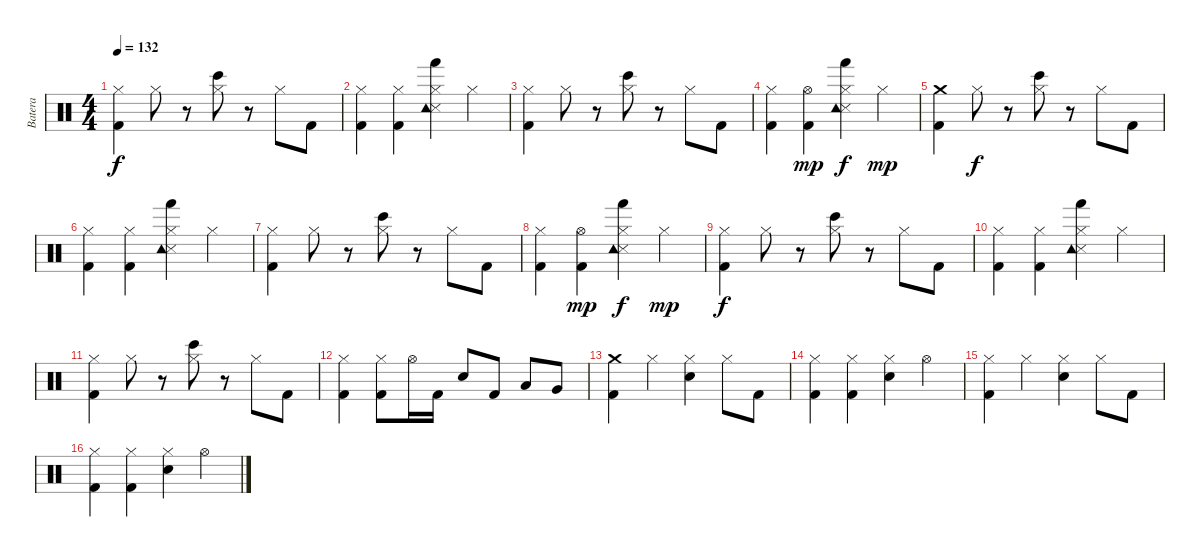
\track ("Batera" "Batera") {instrument percussion}
\staff {score}
\articulation defaults
\ts (4 4)
\tempo 132
\clef neutral
\ks c
("Hi-Hat (closed)" "Kick (hit) 2").4{dy f} "Hi-Hat (closed)".8 r.8 ("Hi-Hat (closed)" "Bongo High (hit)").8 r.8 "Hi-Hat (closed)".8 "Kick (hit) 2".8 |
("Hi-Hat (closed)" "Kick (hit) 2").4 ("Hi-Hat (closed)" "Kick (hit) 2").4 ("Hi-Hat (closed)" "Snare (side stick) 3" "Hand (hit)" "Tambourine (hit)").4 "Hi-Hat (closed)".4 |
("Hi-Hat (closed)" "Kick (hit) 2").4 "Hi-Hat (closed)".8 r.8 ("Hi-Hat (closed)" "Bongo High (hit)").8 r.8 "Hi-Hat (closed)".8 "Kick (hit) 2".8 |
("Hi-Hat (closed)" "Kick (hit) 2").4 ("Hi-Hat (open)" "Kick (hit) 2").4{dy mp} ("Hi-Hat (closed)" "Hand (hit)" "Snare (side stick) 3" "Tambourine (hit)").4{dy f} "Hi-Hat (closed)".4{dy mp} |
("Crash medium (hit)" "Kick (hit) 2").4 "Hi-Hat (closed)".8{dy f} r.8 ("Hi-Hat (closed)" "Bongo High (hit)").8 r.8 "Hi-Hat (closed)".8 "Kick (hit) 2".8 |
("Hi-Hat (closed)" "Kick (hit) 2").4 ("Hi-Hat (closed)" "Kick (hit) 2").4 ("Hi-Hat (closed)" "Snare (side stick) 3" "Hand (hit)" "Tambourine (hit)").4 "Hi-Hat (closed)".4 |
("Hi-Hat (closed)" "Kick (hit) 2").4 "Hi-Hat (closed)".8 r.8 ("Hi-Hat (closed)" "Bongo High (hit)").8 r.8 "Hi-Hat (closed)".8 "Kick (hit) 2".8 |
("Hi-Hat (closed)" "Kick (hit) 2").4 ("Hi-Hat (open)" "Kick (hit) 2").4{dy mp} ("Hi-Hat (closed)" "Hand (hit)" "Snare (side stick) 3" "Tambourine (hit)").4{dy f} "Hi-Hat (closed)".4{dy mp} |
("Hi-Hat (closed)" "Kick (hit) 2").4{dy f} "Hi-Hat (closed)".8 r.8 ("Hi-Hat (closed)" "Bongo High (hit)").8 r.8 "Hi-Hat (closed)".8 "Kick (hit) 2".8 |
("Hi-Hat (closed)" "Kick (hit) 2").4 ("Hi-Hat (closed)" "Kick (hit) 2").4 ("Hi-Hat (closed)" "Snare (side stick) 3" "Hand (hit)" "Tambourine (hit)").4 "Hi-Hat (closed)".4 |
("Hi-Hat (closed)" "Kick (hit) 2").4 "Hi-Hat (closed)".8 r.8 ("Hi-Hat (closed)" "Bongo High (hit)").8 r.8 "Hi-Hat (closed)".8 "Kick (hit) 2".8 |
("Hi-Hat (closed)" "Kick (hit) 2").4 ("Hi-Hat (closed)" "Kick (hit) 2").8 "Hi-Hat (open)".16 "Kick (hit) 2".16 "Electric Snare (hit)".8 "Kick (hit) 2".8 "Low Tom (hit)".8 "Very Low Tom (hit)".8 |
("Crash medium (hit)" "Kick (hit) 2").4 "Hi-Hat (closed)".4 ("Hi-Hat (closed)" "Electric Snare (hit)").4 "Hi-Hat (closed)".8 "Kick (hit) 2".8 |
("Hi-Hat (closed)" "Kick (hit) 2").4 ("Hi-Hat (closed)" "Kick (hit) 2").4 ("Hi-Hat (closed)" "Electric Snare (hit)").4 "Hi-Hat (open)".4 |
("Hi-Hat (closed)" "Kick (hit) 2").4 "Hi-Hat (closed)".4 ("Hi-Hat (closed)" "Electric Snare (hit)").4 "Hi-Hat (closed)".8 "Kick (hit) 2".8 |
("Hi-Hat (closed)" "Kick (hit) 2").4 ("Hi-Hat (closed)" "Kick (hit) 2").4 ("Hi-Hat (closed)" "Electric Snare (hit)").4 "Hi-Hat (open)".4
